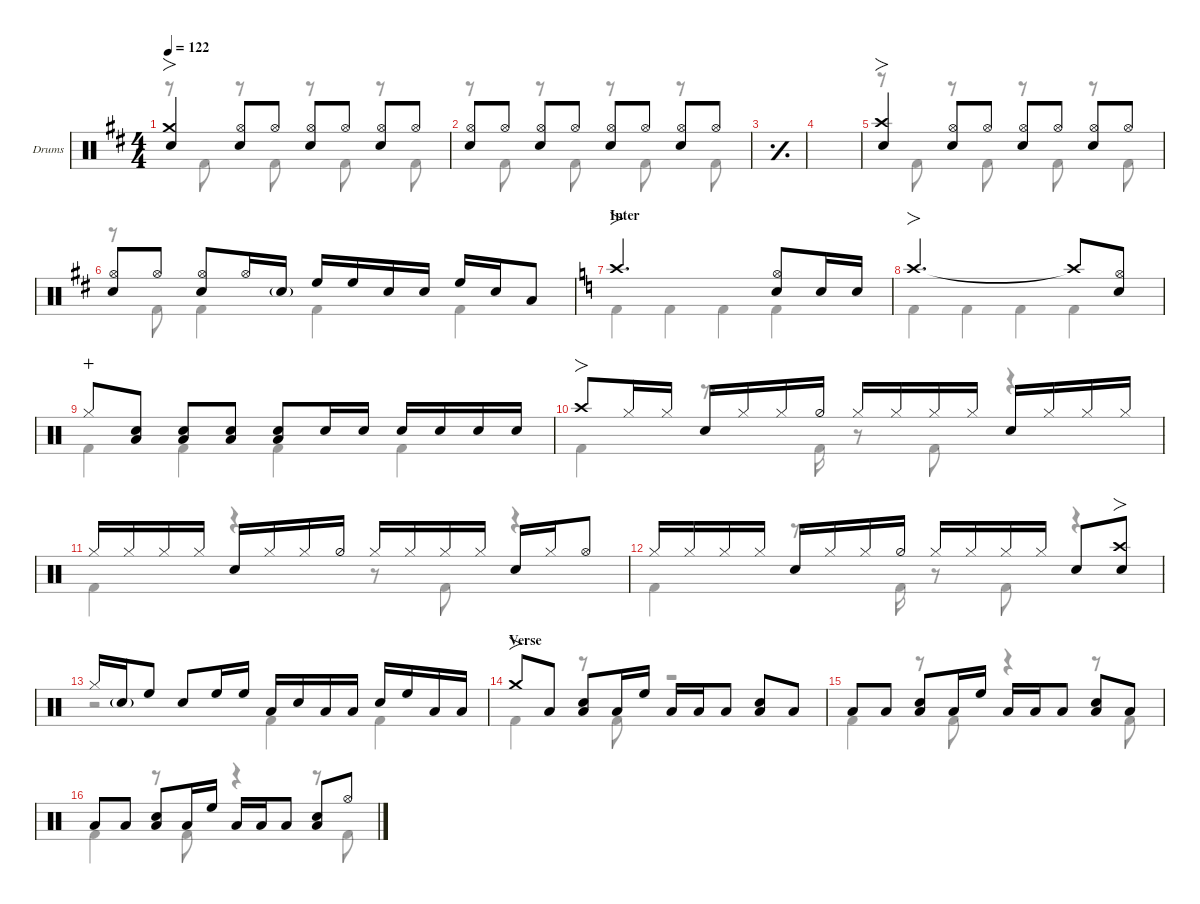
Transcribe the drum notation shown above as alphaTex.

\defaultSystemsLayout 4
\hideDynamics
\bracketExtendMode nobrackets
\firstSystemTrackNameOrientation horizontal
\track ("Drums" "Drums") {defaultSystemsLayout 4 instrument percussion}
\staff {score}
\articulation defaults
\voice
\ts (4 4)
\tempo 122
\clef neutral
\scale
0.266618
\ks d
("Crash medium (hit)"{acc forcenatural} "Snare (hit) 2"{acc forcenatural}).4{fo dy f beam Up} ("Hi-Hat (open)"{acc forcenatural} "Snare (hit) 2"{acc forcenatural}).8{beam Up} "Hi-Hat (open)"{acc forcenatural}.8{dy mf beam Up} ("Hi-Hat (open)"{acc forcenatural} "Snare (hit) 2"{acc forcenatural}).8{dy f beam Up} "Hi-Hat (open)"{acc forcenatural}.8{dy mf beam Up} ("Hi-Hat (open)"{acc forcenatural} "Snare (hit) 2"{acc forcenatural}).8{dy f beam Up} "Hi-Hat (open)"{acc forcenatural}.8{dy mf beam Up} |
\scale
0.244461 ("Hi-Hat (open)"{acc forcenatural} "Snare (hit) 2"{acc forcenatural}).8{dy f beam Up} "Hi-Hat (open)"{acc forcenatural}.8{dy mf beam Up} ("Hi-Hat (open)"{acc forcenatural} "Snare (hit) 2"{acc forcenatural}).8{dy f beam Up} "Hi-Hat (open)"{acc forcenatural}.8{dy mf beam Up} ("Hi-Hat (open)"{acc forcenatural} "Snare (hit) 2"{acc forcenatural}).8{dy f beam Up} "Hi-Hat (open)"{acc forcenatural}.8{dy mf beam Up} ("Hi-Hat (open)"{acc forcenatural} "Snare (hit) 2"{acc forcenatural}).8{dy f beam Up} "Hi-Hat (open)"{acc forcenatural}.8{dy mf beam Up} |
\simile simple
\scale
0.244461 |
\scale
0.24446 |
\simile none
\scale
0.511079 ("Crash high (hit)"{acc forcenatural} "Snare (hit) 2"{acc forcenatural}).4{fo dy f beam Up} ("Hi-Hat (open)"{acc forcenatural} "Snare (hit) 2"{acc forcenatural}).8{beam Up} "Hi-Hat (open)"{acc forcenatural}.8{dy mf beam Up} ("Hi-Hat (open)"{acc forcenatural} "Snare (hit) 2"{acc forcenatural}).8{dy f beam Up} "Hi-Hat (open)"{acc forcenatural}.8{dy mf beam Up} ("Hi-Hat (open)"{acc forcenatural} "Snare (hit) 2"{acc forcenatural}).8{dy f beam Up} "Hi-Hat (open)"{acc forcenatural}.8{dy mf beam Up} |
\scale
0.488921 ("Hi-Hat (open)"{acc forcenatural} "Snare (hit) 2"{acc forcenatural}).8{dy f beam Up} "Hi-Hat (open)"{acc forcenatural}.8{dy mf beam Up beam split} ("Hi-Hat (open)"{acc forcenatural} "Snare (hit) 2"{acc forcenatural}).8{dy f beam Up} "Hi-Hat (open)"{acc forcenatural}.16{dy mf beam Up} "Snare (hit) 2"{g acc forcenatural}.16{beam Up} "High Floor Tom (hit)"{acc forcenatural}.16{dy f beam Up} "High Floor Tom (hit)"{acc forcenatural}.16{beam Up} "Snare (hit) 2"{acc forcenatural}.16{beam Up} "Snare (hit) 2"{acc forcenatural}.16{dy mf beam Up beam split} "High Floor Tom (hit)"{acc forcenatural}.16{beam Up} "Snare (hit) 2"{acc forcenatural}.16{beam Up} "Low Tom (hit)"{acc forcenatural}.8{beam Up} |
\section ("" "Inter")
\scale
0.348105
\ks c "Crash high (hit)".2{fo d dy f beam Up}
("Hi-Hat (open)" "Snare (hit) 2").8{beam Up} "Snare (hit) 2".16{beam Up} "Snare (hit) 2".16{dy mf beam Up} |
\scale
0.325947 "Crash high (hit)".2{fo d dy f beam Up} "Crash high (hit)"{t}.8{beam Up} ("Snare (hit) 2" "Hi-Hat (open)").8{beam Up} |
\scale
0.325947 "Hi-Hat (closed)".8{dy mp wahc beam Up} ("Snare (hit) 2" "Low Tom (hit)").8{dy f beam Up} ("Low Tom (hit)" "Snare (hit) 2").8{beam Up} ("Snare (hit) 2" "Low Tom (hit)").8{beam Up} ("Snare (hit) 2" "Low Tom (hit)").8{beam Up} "Snare (hit) 2".16{beam Up} "Snare (hit) 2".16{dy mf beam Up beam split} "Snare (hit) 2".16{dy f beam Up} "Snare (hit) 2".16{dy mf beam Up beam merge} "Snare (hit) 2".16{dy f beam Up} "Snare (hit) 2".16{dy mf beam Up beam split} |
\scale
0.266618 "Crash high (hit)".8{fo dy f beam Up} "Hi-Hat (closed)".16{beam Up} "Hi-Hat (closed)".16{dy mf beam Up beam split} "Snare (hit) 2".16{dy f beam Up} "Hi-Hat (closed)".16{dy mf beam Up} "Hi-Hat (closed)".16{dy f beam Up} "Hi-Hat (half)".16{beam Up} "Hi-Hat (closed)".16{beam Up} "Hi-Hat (closed)".16{dy mf beam Up} "Hi-Hat (closed)".16{dy f beam Up} "Hi-Hat (closed)".16{dy mf beam Up beam split} "Snare (hit) 2".16{dy f beam Up} "Hi-Hat (closed)".16{dy mf beam Up} "Hi-Hat (closed)".16{dy f beam Up} "Hi-Hat (closed)".16{dy mf beam Up} |
\scale
0.244461 "Hi-Hat (closed)".16{dy f beam Up} "Hi-Hat (closed)".16{dy mf beam Up} "Hi-Hat (closed)".16{dy f beam Up} "Hi-Hat (closed)".16{dy mf beam Up beam split} "Snare (hit) 2".16{dy f beam Up} "Hi-Hat (closed)".16{dy mf beam Up} "Hi-Hat (closed)".16{dy f beam Up} "Hi-Hat (half)".16{beam Up} "Hi-Hat (closed)".16{beam Up} "Hi-Hat (closed)".16{dy mf beam Up} "Hi-Hat (closed)".16{dy f beam Up} "Hi-Hat (closed)".16{dy mf beam Up beam split} "Snare (hit) 2".16{dy f beam Up} "Hi-Hat (closed)".16{dy mf beam Up} "Hi-Hat (open)".8{dy f beam Up} |
\scale
0.24446 "Hi-Hat (closed)".16{dy mf beam Up} "Hi-Hat (closed)".16{beam Up} "Hi-Hat (closed)".16{dy f beam Up} "Hi-Hat (closed)".16{dy mf beam Up beam split} "Snare (hit) 2".16{dy f beam Up} "Hi-Hat (closed)".16{dy mf beam Up} "Hi-Hat (closed)".16{dy f beam Up} "Hi-Hat (half)".16{beam Up} "Hi-Hat (closed)".16{beam Up} "Hi-Hat (closed)".16{dy mf beam Up} "Hi-Hat (closed)".16{dy f beam Up} "Hi-Hat (closed)".16{dy mf beam Up beam split} "Snare (hit) 2".8{dy f beam Up} ("Snare (hit) 2" "Crash high (hit)").8{fo beam Up} |
\scale
0.244461 "Hi-Hat (closed)".16{beam Up} "Snare (hit) 2"{g}.16{dy mf beam Up} "High Floor Tom (hit)".8{dy f beam Up beam split} "Snare (hit) 2".8{beam Up} "High Floor Tom (hit)".16{beam Up} "High Floor Tom (hit)".16{beam Up} "Low Tom (hit)".16{beam Up} "Snare (hit) 2".16{beam Up} "Low Tom (hit)".16{beam Up} "Low Tom (hit)".16{beam Up beam split} "Snare (hit) 2".16{beam Up} "High Floor Tom (hit)".16{beam Up} "Low Tom (hit)".16{beam Up} "Low Tom (hit)".16{beam Up} |
\section ("" "Verse")
\scale
0.266618 "Crash medium (hit)".8{fo beam Up} "Low Tom (hit)".8{beam Up beam split} ("Snare (hit) 2" "Low Tom (hit)").8{beam Up beam merge} "Low Tom (hit)".16{beam Up} "High Floor Tom (hit)".16{beam Up} "Low Tom (hit)".16{beam Up} "Low Tom (hit)".16{beam Up} "Low Tom (hit)".8{beam Up beam split} ("Snare (hit) 2" "Low Tom (hit)").8{beam Up} "Low Tom (hit)".8{beam Up} |
\scale
0.244461 "Low Tom (hit)".8{beam Up} "Low Tom (hit)".8{beam Up beam split} ("Snare (hit) 2" "Low Tom (hit)").8{beam Up beam merge} "Low Tom (hit)".16{beam Up} "High Floor Tom (hit)".16{beam Up} "Low Tom (hit)".16{beam Up} "Low Tom (hit)".16{dy mf beam Up} "Low Tom (hit)".8{dy f beam Up beam split} ("Snare (hit) 2" "Low Tom (hit)").8{beam Up} "Low Tom (hit)".8{beam Up} |
\scale
0.24446 "Low Tom (hit)".8{beam Up} "Low Tom (hit)".8{beam Up beam split} ("Snare (hit) 2" "Low Tom (hit)").8{beam Up beam merge} "Low Tom (hit)".16{beam Up} "High Floor Tom (hit)".16{beam Up} "Low Tom (hit)".16{beam Up} "Low Tom (hit)".16{dy mf beam Up} "Low Tom (hit)".8{dy f beam Up beam split} ("Snare (hit) 2" "Low Tom (hit)").8{beam Up} "Hi-Hat (open)".8{beam Up}
\voice
\clef neutral
\ottava regular
\simile none
\scale
0.266618
\ks d
r.8{dy f beam Down} "Kick (hit) 2"{acc forcenatural}.8{beam Down} r.8{beam Down} "Kick (hit) 2"{acc forcenatural}.8{beam Down} r.8{beam Down} "Kick (hit) 2"{acc forcenatural}.8{beam Down} r.8{beam Down} "Kick (hit) 2"{acc forcenatural}.8{beam Down} |
\scale
0.244461 r.8{beam Down} "Kick (hit) 2"{acc forcenatural}.8{beam Down} r.8{beam Down} "Kick (hit) 2"{acc forcenatural}.8{beam Down} r.8{beam Down} "Kick (hit) 2"{acc forcenatural}.8{beam Down} r.8{beam Down} "Kick (hit) 2"{acc forcenatural}.8{beam Down} |
\simile simple
\scale
0.244461 |
\scale
0.24446 |
\simile none
\scale
0.511079 r.8{beam Down} "Kick (hit) 2"{acc forcenatural}.8{beam Down} r.8{beam Down} "Kick (hit) 2"{acc forcenatural}.8{beam Down} r.8{beam Down} "Kick (hit) 2"{acc forcenatural}.8{beam Down} r.8{beam Down} "Kick (hit) 2"{acc forcenatural}.8{beam Down} |
\scale
0.488921 r.8{beam Down} "Kick (hit) 2"{acc forcenatural}.8{beam Down} "Kick (hit) 2"{acc forcenatural}.4{beam Down} "Kick (hit) 2"{acc forcenatural}.4{beam Down} "Kick (hit) 2"{acc forcenatural}.4{beam Down} |
\scale
0.348105
\ks c "Kick (hit) 2".4{beam Down} "Kick (hit) 2".4{beam Down} "Kick (hit) 2".4{beam Down} "Kick (hit) 2".4{beam Down}
|
\scale
0.325947 "Kick (hit) 2".4{beam Down} "Kick (hit) 2".4{beam Down} "Kick (hit) 2".4{beam Down} "Kick (hit) 2".4{beam Down} |
\scale
0.325947 "Kick (hit) 2".4{beam Down} "Kick (hit) 2".4{beam Down} "Kick (hit) 2".4{beam Down} "Kick (hit) 2".4{beam Down} |
\scale
0.266618 "Kick (hit) 2".4{beam Down} r.8{d beam Down} "Kick (hit) 2".16{beam Down} r.8{beam Down} "Kick (hit) 2".8{beam Down} r.4{beam Down} |
\scale
0.244461 "Kick (hit) 2".4{beam Down} r.4{beam Down} r.8{beam Down} "Kick (hit) 2".8{beam Down} r.4{beam Down} |
\scale
0.24446 "Kick (hit) 2".4{beam Down} r.8{d beam Down} "Kick (hit) 2".16{beam Down} r.8{beam Down} "Kick (hit) 2".8{beam Down} r.4{beam Down} |
\scale
0.244461 r.2{beam Down} "Kick (hit) 2".4{beam Down} "Kick (hit) 2".4{beam Down} |
\scale
0.266618 "Kick (hit) 2".4{beam Down} r.8{beam Down} "Kick (hit) 2".8{beam Down} r.2{beam Down} |
\scale
0.244461 "Kick (hit) 2".4{beam Down} r.8{beam Down} "Kick (hit) 2".8{beam Down} r.4{beam Down} r.8{beam Down} "Kick (hit) 2".8{beam Down} |
\scale
0.24446 "Kick (hit) 2".4{beam Down} r.8{beam Down} "Kick (hit) 2".8{beam Down} r.4{beam Down} r.8{beam Down} "Kick (hit) 2".8{beam Down}
